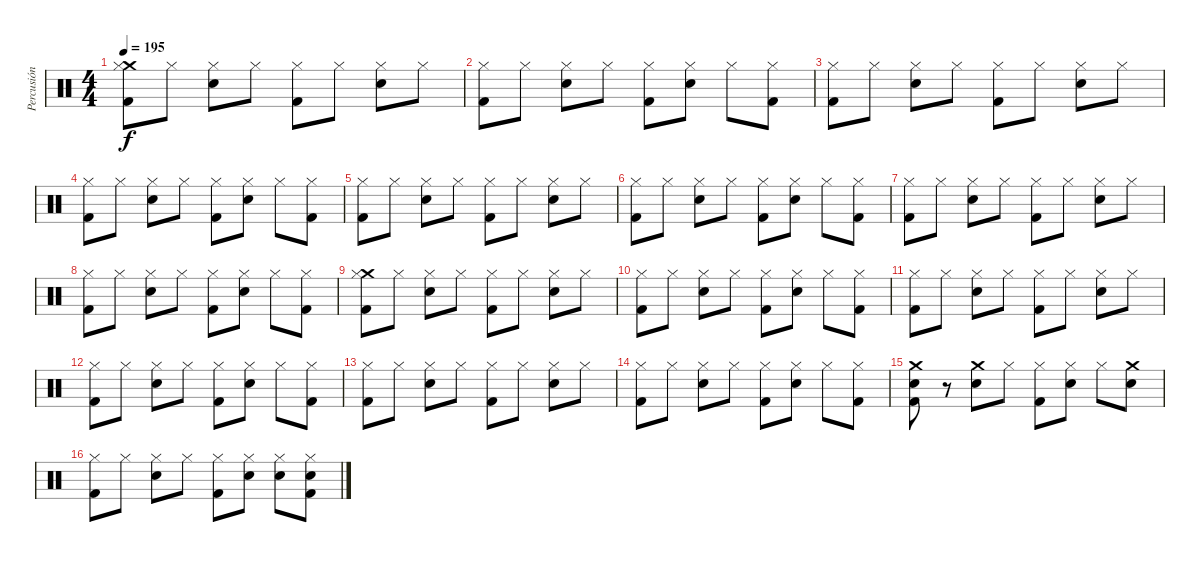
\track ("Percusión" "Percusión") {instrument percussion}
\staff {score}
\articulation defaults
\ts (4 4)
\tempo 195
\clef neutral
\ks c
("Crash medium (hit)" "Hi-Hat (closed)" "Kick (hit) 2").8{dy f} "Hi-Hat (closed)".8 ("Hi-Hat (closed)" "Snare (hit) 2").8 "Hi-Hat (closed)".8 ("Hi-Hat (closed)" "Kick (hit) 2").8 "Hi-Hat (closed)".8 ("Hi-Hat (closed)" "Snare (hit) 2").8 "Hi-Hat (closed)".8 |
("Hi-Hat (closed)" "Kick (hit) 2").8 "Hi-Hat (closed)".8 ("Hi-Hat (closed)" "Snare (hit) 2").8 "Hi-Hat (closed)".8 ("Hi-Hat (closed)" "Kick (hit) 2").8 ("Hi-Hat (closed)" "Snare (hit) 2").8 "Hi-Hat (closed)".8 ("Hi-Hat (closed)" "Kick (hit) 2").8 |
("Hi-Hat (closed)" "Kick (hit) 2").8 "Hi-Hat (closed)".8 ("Hi-Hat (closed)" "Snare (hit) 2").8 "Hi-Hat (closed)".8 ("Hi-Hat (closed)" "Kick (hit) 2").8 "Hi-Hat (closed)".8 ("Hi-Hat (closed)" "Snare (hit) 2").8 "Hi-Hat (closed)".8 |
("Hi-Hat (closed)" "Kick (hit) 2").8 "Hi-Hat (closed)".8 ("Hi-Hat (closed)" "Snare (hit) 2").8 "Hi-Hat (closed)".8 ("Hi-Hat (closed)" "Kick (hit) 2").8 ("Hi-Hat (closed)" "Snare (hit) 2").8 "Hi-Hat (closed)".8 ("Hi-Hat (closed)" "Kick (hit) 2").8 |
("Hi-Hat (closed)" "Kick (hit) 2").8 "Hi-Hat (closed)".8 ("Hi-Hat (closed)" "Snare (hit) 2").8 "Hi-Hat (closed)".8 ("Hi-Hat (closed)" "Kick (hit) 2").8 "Hi-Hat (closed)".8 ("Hi-Hat (closed)" "Snare (hit) 2").8 "Hi-Hat (closed)".8 |
("Hi-Hat (closed)" "Kick (hit) 2").8 "Hi-Hat (closed)".8 ("Hi-Hat (closed)" "Snare (hit) 2").8 "Hi-Hat (closed)".8 ("Hi-Hat (closed)" "Kick (hit) 2").8 ("Hi-Hat (closed)" "Snare (hit) 2").8 "Hi-Hat (closed)".8 ("Hi-Hat (closed)" "Kick (hit) 2").8 |
("Hi-Hat (closed)" "Kick (hit) 2").8 "Hi-Hat (closed)".8 ("Hi-Hat (closed)" "Snare (hit) 2").8 "Hi-Hat (closed)".8 ("Hi-Hat (closed)" "Kick (hit) 2").8 "Hi-Hat (closed)".8 ("Hi-Hat (closed)" "Snare (hit) 2").8 "Hi-Hat (closed)".8 |
("Hi-Hat (closed)" "Kick (hit) 2").8 "Hi-Hat (closed)".8 ("Hi-Hat (closed)" "Snare (hit) 2").8 "Hi-Hat (closed)".8 ("Hi-Hat (closed)" "Kick (hit) 2").8 ("Hi-Hat (closed)" "Snare (hit) 2").8 "Hi-Hat (closed)".8 ("Hi-Hat (closed)" "Kick (hit) 2").8 |
("Crash medium (hit)" "Hi-Hat (closed)" "Kick (hit) 2").8 "Hi-Hat (closed)".8 ("Hi-Hat (closed)" "Snare (hit) 2").8 "Hi-Hat (closed)".8 ("Hi-Hat (closed)" "Kick (hit) 2").8 "Hi-Hat (closed)".8 ("Hi-Hat (closed)" "Snare (hit) 2").8 "Hi-Hat (closed)".8 |
("Hi-Hat (closed)" "Kick (hit) 2").8 "Hi-Hat (closed)".8 ("Hi-Hat (closed)" "Snare (hit) 2").8 "Hi-Hat (closed)".8 ("Hi-Hat (closed)" "Kick (hit) 2").8 ("Hi-Hat (closed)" "Snare (hit) 2").8 "Hi-Hat (closed)".8 ("Hi-Hat (closed)" "Kick (hit) 2").8 |
("Hi-Hat (closed)" "Kick (hit) 2").8 "Hi-Hat (closed)".8 ("Hi-Hat (closed)" "Snare (hit) 2").8 "Hi-Hat (closed)".8 ("Hi-Hat (closed)" "Kick (hit) 2").8 "Hi-Hat (closed)".8 ("Hi-Hat (closed)" "Snare (hit) 2").8 "Hi-Hat (closed)".8 |
("Hi-Hat (closed)" "Kick (hit) 2").8 "Hi-Hat (closed)".8 ("Hi-Hat (closed)" "Snare (hit) 2").8 "Hi-Hat (closed)".8 ("Hi-Hat (closed)" "Kick (hit) 2").8 ("Hi-Hat (closed)" "Snare (hit) 2").8 "Hi-Hat (closed)".8 ("Hi-Hat (closed)" "Kick (hit) 2").8 |
("Hi-Hat (closed)" "Kick (hit) 2").8 "Hi-Hat (closed)".8 ("Hi-Hat (closed)" "Snare (hit) 2").8 "Hi-Hat (closed)".8 ("Hi-Hat (closed)" "Kick (hit) 2").8 "Hi-Hat (closed)".8 ("Hi-Hat (closed)" "Snare (hit) 2").8 "Hi-Hat (closed)".8 |
("Hi-Hat (closed)" "Kick (hit) 2").8 "Hi-Hat (closed)".8 ("Hi-Hat (closed)" "Snare (hit) 2").8 "Hi-Hat (closed)".8 ("Hi-Hat (closed)" "Kick (hit) 2").8 ("Hi-Hat (closed)" "Snare (hit) 2").8 "Hi-Hat (closed)".8 ("Hi-Hat (closed)" "Kick (hit) 2").8 |
("Crash medium (hit)" "Snare (hit) 2" "Kick (hit) 2").8 r.8 ("Crash medium (hit)" "Snare (hit) 2").8 "Hi-Hat (closed)".8 ("Hi-Hat (closed)" "Kick (hit) 2").8 ("Hi-Hat (closed)" "Snare (hit) 2").8 "Hi-Hat (closed)".8 ("Crash medium (hit)" "Snare (hit) 2").8 |
("Hi-Hat (closed)" "Kick (hit) 2").8 "Hi-Hat (closed)".8 ("Hi-Hat (closed)" "Snare (hit) 2").8 "Hi-Hat (closed)".8 ("Hi-Hat (closed)" "Kick (hit) 2").8 ("Hi-Hat (closed)" "Snare (hit) 2").8 ("Hi-Hat (closed)" "Snare (hit) 2").8 ("Hi-Hat (closed)" "Snare (hit) 2" "Kick (hit) 2").8
